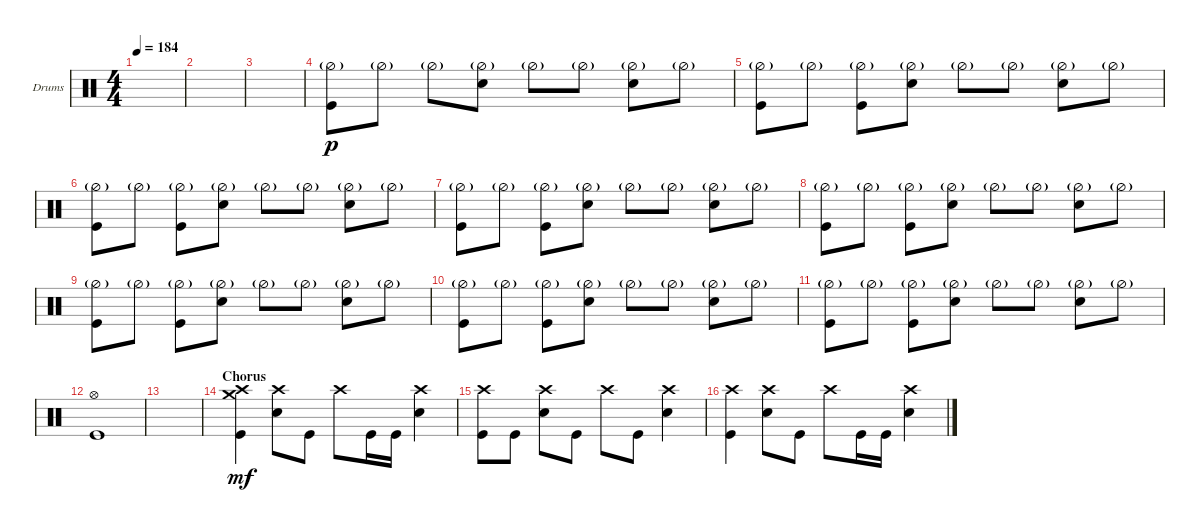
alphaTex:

\defaultSystemsLayout 4
\bracketExtendMode groupsimilarinstruments
\firstSystemTrackNameOrientation horizontal
\otherSystemsTrackNameOrientation horizontal
\track ("Drums (Phoenix)" "Drums") {instrument percussion}
\staff {score}
\articulation defaults
\ts (4 4)
\tempo 184
\clef neutral
\ks c
|
|
|
("Kick (hit)" "Hi-Hat (half)"{g}).8{dy p} "Hi-Hat (half)"{g}.8 "Hi-Hat (half)"{g}.8 ("Hi-Hat (half)"{g} "Snare (hit) 2").8 "Hi-Hat (half)"{g}.8 "Hi-Hat (half)"{g}.8 ("Hi-Hat (half)"{g} "Snare (hit) 2").8 "Hi-Hat (half)"{g}.8 |
("Kick (hit)" "Hi-Hat (half)"{g}).8 "Hi-Hat (half)"{g}.8 ("Hi-Hat (half)"{g} "Kick (hit)").8 ("Hi-Hat (half)"{g} "Snare (hit) 2").8 "Hi-Hat (half)"{g}.8 "Hi-Hat (half)"{g}.8 ("Hi-Hat (half)"{g} "Snare (hit) 2").8 "Hi-Hat (half)"{g}.8 |
("Kick (hit)" "Hi-Hat (half)"{g}).8 "Hi-Hat (half)"{g}.8 ("Hi-Hat (half)"{g} "Kick (hit)").8 ("Hi-Hat (half)"{g} "Snare (hit) 2").8 "Hi-Hat (half)"{g}.8 "Hi-Hat (half)"{g}.8 ("Hi-Hat (half)"{g} "Snare (hit) 2").8 "Hi-Hat (half)"{g}.8 |
("Kick (hit)" "Hi-Hat (half)"{g}).8 "Hi-Hat (half)"{g}.8 ("Hi-Hat (half)"{g} "Kick (hit)").8 ("Hi-Hat (half)"{g} "Snare (hit) 2").8 "Hi-Hat (half)"{g}.8 "Hi-Hat (half)"{g}.8 ("Hi-Hat (half)"{g} "Snare (hit) 2").8 "Hi-Hat (half)"{g}.8 |
("Kick (hit)" "Hi-Hat (half)"{g}).8 "Hi-Hat (half)"{g}.8 ("Hi-Hat (half)"{g} "Kick (hit)").8 ("Hi-Hat (half)"{g} "Snare (hit) 2").8 "Hi-Hat (half)"{g}.8 "Hi-Hat (half)"{g}.8 ("Hi-Hat (half)"{g} "Snare (hit) 2").8 "Hi-Hat (half)"{g}.8 |
("Kick (hit)" "Hi-Hat (half)"{g}).8 "Hi-Hat (half)"{g}.8 ("Hi-Hat (half)"{g} "Kick (hit)").8 ("Hi-Hat (half)"{g} "Snare (hit) 2").8 "Hi-Hat (half)"{g}.8 "Hi-Hat (half)"{g}.8 ("Hi-Hat (half)"{g} "Snare (hit) 2").8 "Hi-Hat (half)"{g}.8 |
("Kick (hit)" "Hi-Hat (half)"{g}).8 "Hi-Hat (half)"{g}.8 ("Hi-Hat (half)"{g} "Kick (hit)").8 ("Hi-Hat (half)"{g} "Snare (hit) 2").8 "Hi-Hat (half)"{g}.8 "Hi-Hat (half)"{g}.8 ("Hi-Hat (half)"{g} "Snare (hit) 2").8 "Hi-Hat (half)"{g}.8 |
("Kick (hit)" "Hi-Hat (half)"{g}).8 "Hi-Hat (half)"{g}.8 ("Hi-Hat (half)"{g} "Kick (hit)").8 ("Hi-Hat (half)"{g} "Snare (hit) 2").8 "Hi-Hat (half)"{g}.8 "Hi-Hat (half)"{g}.8 ("Hi-Hat (half)"{g} "Snare (hit) 2").8 "Hi-Hat (half)"{g}.8 |
("Kick (hit)" "Hi-Hat (open)").1 |
|
\section ("" "Chorus")
("Kick (hit)" "Crash high (hit)" "Crash medium (hit)").4{dy mf} ("Snare (hit) 2" "Crash high (hit)").8 "Kick (hit)".8 "Crash high (hit)".8 "Kick (hit)".16 "Kick (hit)".16 ("Snare (hit) 2" "Crash high (hit)").4 |
("Kick (hit)" "Crash high (hit)").8 "Kick (hit)".8 ("Snare (hit) 2" "Crash high (hit)").8 "Kick (hit)".8 "Crash high (hit)".8 "Kick (hit)".8 ("Snare (hit) 2" "Crash high (hit)").4 |
("Kick (hit)" "Crash high (hit)").4 ("Snare (hit) 2" "Crash high (hit)").8 "Kick (hit)".8 "Crash high (hit)".8 "Kick (hit)".16 "Kick (hit)".16 ("Snare (hit) 2" "Crash high (hit)").4
